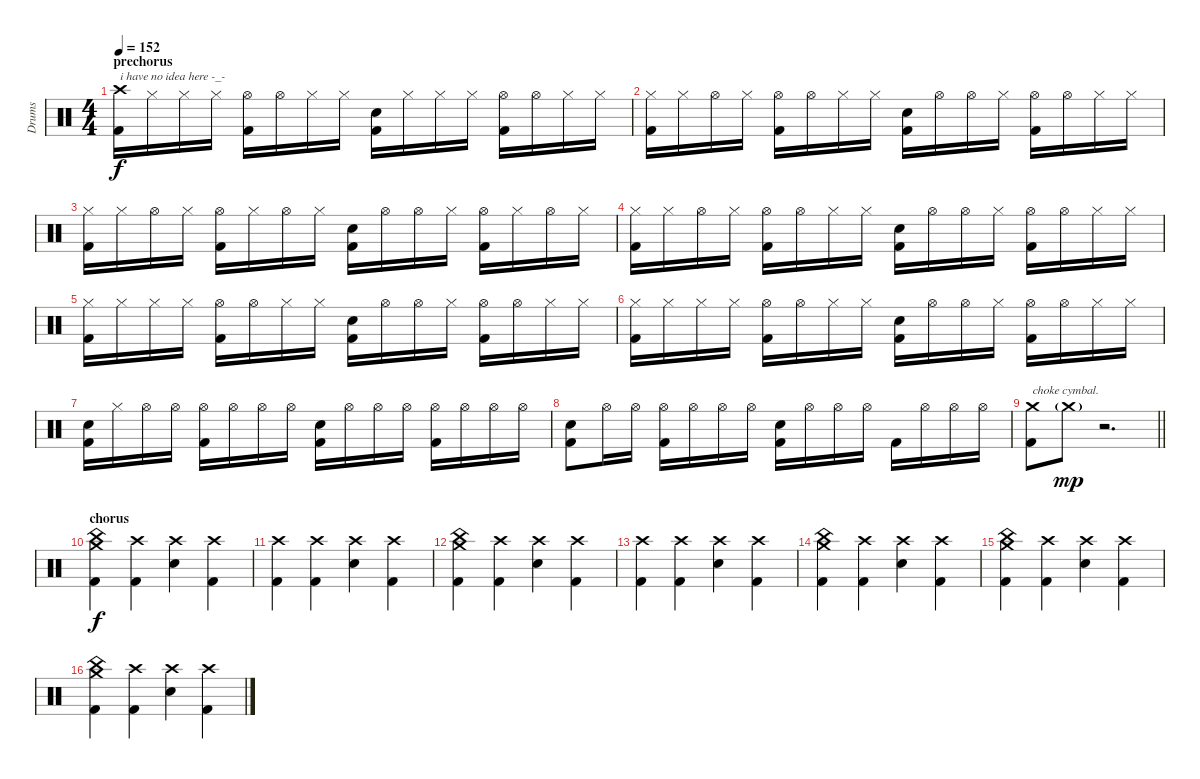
\track ("Drums" "Drums") {instrument percussion}
\staff {score}
\articulation defaults
\ts (4 4)
\section ("" "prechorus")
\tempo 152
\clef neutral
\ks c
("Crash high (hit)" "Kick (hit) 2").16{txt "i have no idea here -_-" dy f} "Hi-Hat (closed)".16 "Hi-Hat (closed)".16 "Hi-Hat (closed)".16 ("Hi-Hat (open)" "Kick (hit) 2").16 "Hi-Hat (open)".16 "Hi-Hat (closed)".16 "Hi-Hat (closed)".16 ("Electric Snare (hit)" "Kick (hit) 2").16 "Hi-Hat (closed)".16 "Hi-Hat (closed)".16 "Hi-Hat (closed)".16 ("Hi-Hat (open)" "Kick (hit) 2").16 "Hi-Hat (open)".16 "Hi-Hat (closed)".16 "Hi-Hat (closed)".16 |
("Hi-Hat (closed)" "Kick (hit) 2").16 "Hi-Hat (closed)".16 "Hi-Hat (open)".16 "Hi-Hat (closed)".16 ("Hi-Hat (open)" "Kick (hit) 2").16 "Hi-Hat (open)".16 "Hi-Hat (closed)".16 "Hi-Hat (closed)".16 ("Electric Snare (hit)" "Kick (hit) 2").16 "Hi-Hat (open)".16 "Hi-Hat (open)".16 "Hi-Hat (closed)".16 ("Hi-Hat (open)" "Kick (hit) 2").16 "Hi-Hat (open)".16 "Hi-Hat (closed)".16 "Hi-Hat (closed)".16 |
("Hi-Hat (closed)" "Kick (hit) 2").16 "Hi-Hat (closed)".16 "Hi-Hat (open)".16 "Hi-Hat (closed)".16 ("Hi-Hat (open)" "Kick (hit) 2").16 "Hi-Hat (closed)".16 "Hi-Hat (open)".16 "Hi-Hat (closed)".16 ("Electric Snare (hit)" "Kick (hit) 2").16 "Hi-Hat (open)".16 "Hi-Hat (open)".16 "Hi-Hat (closed)".16 ("Hi-Hat (open)" "Kick (hit) 2").16 "Hi-Hat (closed)".16 "Hi-Hat (open)".16 "Hi-Hat (closed)".16 |
("Hi-Hat (closed)" "Kick (hit) 2").16 "Hi-Hat (closed)".16 "Hi-Hat (open)".16 "Hi-Hat (closed)".16 ("Hi-Hat (open)" "Kick (hit) 2").16 "Hi-Hat (open)".16 "Hi-Hat (closed)".16 "Hi-Hat (closed)".16 ("Electric Snare (hit)" "Kick (hit) 2").16 "Hi-Hat (open)".16 "Hi-Hat (open)".16 "Hi-Hat (closed)".16 ("Hi-Hat (open)" "Kick (hit) 2").16 "Hi-Hat (open)".16 "Hi-Hat (closed)".16 "Hi-Hat (closed)".16 |
("Hi-Hat (closed)" "Kick (hit) 2").16 "Hi-Hat (closed)".16 "Hi-Hat (closed)".16 "Hi-Hat (closed)".16 ("Hi-Hat (open)" "Kick (hit) 2").16 "Hi-Hat (open)".16 "Hi-Hat (closed)".16 "Hi-Hat (closed)".16 ("Electric Snare (hit)" "Kick (hit) 2").16 "Hi-Hat (open)".16 "Hi-Hat (open)".16 "Hi-Hat (closed)".16 ("Hi-Hat (open)" "Kick (hit) 2").16 "Hi-Hat (open)".16 "Hi-Hat (closed)".16 "Hi-Hat (closed)".16 |
("Hi-Hat (closed)" "Kick (hit) 2").16 "Hi-Hat (closed)".16 "Hi-Hat (closed)".16 "Hi-Hat (closed)".16 ("Hi-Hat (open)" "Kick (hit) 2").16 "Hi-Hat (open)".16 "Hi-Hat (closed)".16 "Hi-Hat (closed)".16 ("Electric Snare (hit)" "Kick (hit) 2").16 "Hi-Hat (open)".16 "Hi-Hat (open)".16 "Hi-Hat (closed)".16 ("Hi-Hat (open)" "Kick (hit) 2").16 "Hi-Hat (open)".16 "Hi-Hat (closed)".16 "Hi-Hat (closed)".16 |
("Electric Snare (hit)" "Kick (hit) 2").16 "Hi-Hat (closed)".16 "Hi-Hat (open)".16 "Hi-Hat (open)".16 ("Hi-Hat (open)" "Kick (hit) 2").16 "Hi-Hat (open)".16 "Hi-Hat (open)".16 "Hi-Hat (open)".16 ("Electric Snare (hit)" "Kick (hit) 2").16 "Hi-Hat (open)".16 "Hi-Hat (open)".16 "Hi-Hat (open)".16 ("Hi-Hat (open)" "Kick (hit) 2").16 "Hi-Hat (open)".16 "Hi-Hat (open)".16 "Hi-Hat (open)".16 |
("Electric Snare (hit)" "Kick (hit) 2").8 "Hi-Hat (open)".16 "Hi-Hat (open)".16 ("Hi-Hat (open)" "Kick (hit) 2").16 "Hi-Hat (open)".16 "Hi-Hat (open)".16 "Hi-Hat (open)".16 ("Electric Snare (hit)" "Kick (hit) 2").16 "Hi-Hat (open)".16 "Hi-Hat (open)".16 "Hi-Hat (open)".16 "Kick (hit) 2".16 "Hi-Hat (open)".16 "Hi-Hat (open)".16 "Hi-Hat (open)".16 |
\barLineRight lightlight
("Crash medium (hit)" "Kick (hit) 2").8{txt "choke cymbal."} "Crash medium (hit)"{g}.8{dy mp volume 0} r.2{d} |
\section ("" "chorus")
("Crash medium (hit)" "China (hit)" "Kick (hit) 2").4{dy f volume 14} ("Crash high (hit)" "Kick (hit) 2").4 ("Crash high (hit)" "Electric Snare (hit)").4 ("Crash high (hit)" "Kick (hit) 2").4 |
("Crash high (hit)" "Kick (hit) 2").4 ("Crash high (hit)" "Kick (hit) 2").4 ("Crash high (hit)" "Electric Snare (hit)").4 ("Crash high (hit)" "Kick (hit) 2").4 |
("China (hit)" "Crash medium (hit)" "Kick (hit) 2").4 ("Crash high (hit)" "Kick (hit) 2").4 ("Crash high (hit)" "Electric Snare (hit)").4 ("Crash high (hit)" "Kick (hit) 2").4 |
("Crash high (hit)" "Kick (hit) 2").4 ("Crash high (hit)" "Kick (hit) 2").4 ("Crash high (hit)" "Electric Snare (hit)").4 ("Crash high (hit)" "Kick (hit) 2").4 |
("China (hit)" "Crash medium (hit)" "Kick (hit) 2").4 ("Crash high (hit)" "Kick (hit) 2").4 ("Crash high (hit)" "Electric Snare (hit)").4 ("Crash high (hit)" "Kick (hit) 2").4 |
("China (hit)" "Crash medium (hit)" "Kick (hit) 2").4 ("Crash high (hit)" "Kick (hit) 2").4 ("Crash high (hit)" "Electric Snare (hit)").4 ("Crash high (hit)" "Kick (hit) 2").4 |
("China (hit)" "Crash medium (hit)" "Kick (hit) 2").4 ("Crash high (hit)" "Kick (hit) 2").4 ("Crash high (hit)" "Electric Snare (hit)").4 ("Crash high (hit)" "Kick (hit) 2").4
